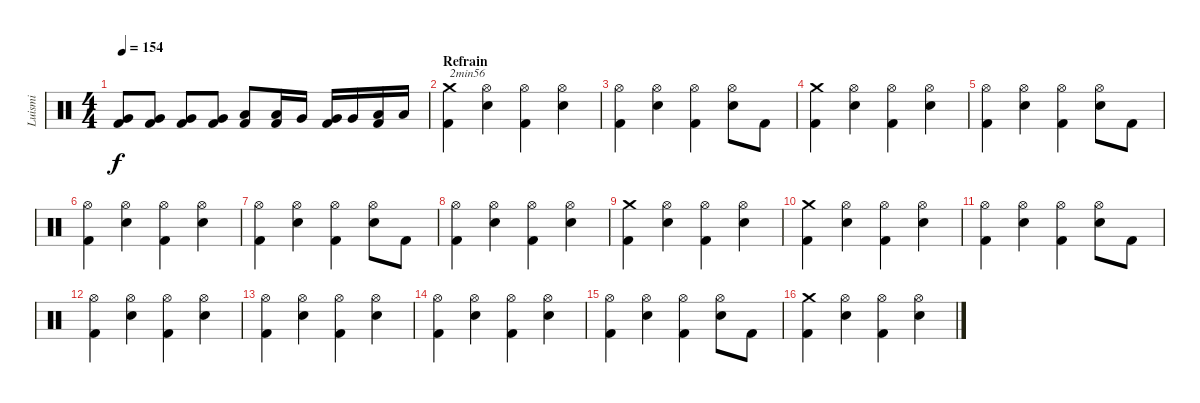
\track ("Luismi" "Luismi") {instrument percussion}
\staff {score}
\articulation defaults
\ts (4 4)
\tempo 154
\clef neutral
\ks c
("Very Low Tom (hit)" "Kick (hit) 2").8{dy f} ("Very Low Tom (hit)" "Kick (hit) 2").8 ("Very Low Tom (hit)" "Kick (hit) 2").8 ("Very Low Tom (hit)" "Kick (hit) 2").8 ("Low Tom (hit)" "Kick (hit) 2").8 ("Low Tom (hit)" "Kick (hit) 2").16 "Very Low Tom (hit)".16 ("Very Low Tom (hit)" "Kick (hit) 2").16 "Very Low Tom (hit)".16 ("Low Floor Tom (hit)" "Kick (hit) 2").16 "Low Floor Tom (hit)".16 |
\section ("" "Refrain")
("Crash medium (hit)" "Kick (hit) 2").4{txt "2min56"} ("Hi-Hat (open)" "Snare (hit) 2").4 ("Hi-Hat (open)" "Kick (hit) 2").4 ("Hi-Hat (open)" "Snare (hit) 2").4 |
("Hi-Hat (open)" "Kick (hit) 2").4 ("Hi-Hat (open)" "Snare (hit) 2").4 ("Hi-Hat (open)" "Kick (hit) 2").4 ("Hi-Hat (open)" "Snare (hit) 2").8 "Kick (hit) 2".8 |
("Crash medium (hit)" "Kick (hit) 2").4 ("Hi-Hat (open)" "Snare (hit) 2").4 ("Hi-Hat (open)" "Kick (hit) 2").4 ("Hi-Hat (open)" "Snare (hit) 2").4 |
("Hi-Hat (open)" "Kick (hit) 2").4 ("Hi-Hat (open)" "Snare (hit) 2").4 ("Hi-Hat (open)" "Kick (hit) 2").4 ("Hi-Hat (open)" "Snare (hit) 2").8 "Kick (hit) 2".8 |
("Hi-Hat (open)" "Kick (hit) 2").4 ("Hi-Hat (open)" "Snare (hit) 2").4 ("Hi-Hat (open)" "Kick (hit) 2").4 ("Hi-Hat (open)" "Snare (hit) 2").4 |
("Hi-Hat (open)" "Kick (hit) 2").4 ("Hi-Hat (open)" "Snare (hit) 2").4 ("Hi-Hat (open)" "Kick (hit) 2").4 ("Hi-Hat (open)" "Snare (hit) 2").8 "Kick (hit) 2".8 |
("Hi-Hat (open)" "Kick (hit) 2").4 ("Hi-Hat (open)" "Snare (hit) 2").4 ("Hi-Hat (open)" "Kick (hit) 2").4 ("Hi-Hat (open)" "Snare (hit) 2").4 |
("Crash medium (hit)" "Kick (hit) 2").4 ("Hi-Hat (open)" "Snare (hit) 2").4 ("Hi-Hat (open)" "Kick (hit) 2").4 ("Hi-Hat (open)" "Snare (hit) 2").4 |
("Crash medium (hit)" "Kick (hit) 2").4 ("Hi-Hat (open)" "Snare (hit) 2").4 ("Hi-Hat (open)" "Kick (hit) 2").4 ("Hi-Hat (open)" "Snare (hit) 2").4 |
("Hi-Hat (open)" "Kick (hit) 2").4 ("Hi-Hat (open)" "Snare (hit) 2").4 ("Hi-Hat (open)" "Kick (hit) 2").4 ("Hi-Hat (open)" "Snare (hit) 2").8 "Kick (hit) 2".8 |
("Hi-Hat (open)" "Kick (hit) 2").4 ("Hi-Hat (open)" "Snare (hit) 2").4 ("Hi-Hat (open)" "Kick (hit) 2").4 ("Hi-Hat (open)" "Snare (hit) 2").4 |
("Hi-Hat (open)" "Kick (hit) 2").4 ("Hi-Hat (open)" "Snare (hit) 2").4 ("Hi-Hat (open)" "Kick (hit) 2").4 ("Hi-Hat (open)" "Snare (hit) 2").4 |
("Hi-Hat (open)" "Kick (hit) 2").4 ("Hi-Hat (open)" "Snare (hit) 2").4 ("Hi-Hat (open)" "Kick (hit) 2").4 ("Hi-Hat (open)" "Snare (hit) 2").4 |
("Hi-Hat (open)" "Kick (hit) 2").4 ("Hi-Hat (open)" "Snare (hit) 2").4 ("Hi-Hat (open)" "Kick (hit) 2").4 ("Hi-Hat (open)" "Snare (hit) 2").8 "Kick (hit) 2".8 |
("Crash medium (hit)" "Kick (hit) 2").4 ("Hi-Hat (open)" "Snare (hit) 2").4 ("Hi-Hat (open)" "Kick (hit) 2").4 ("Hi-Hat (open)" "Snare (hit) 2").4
